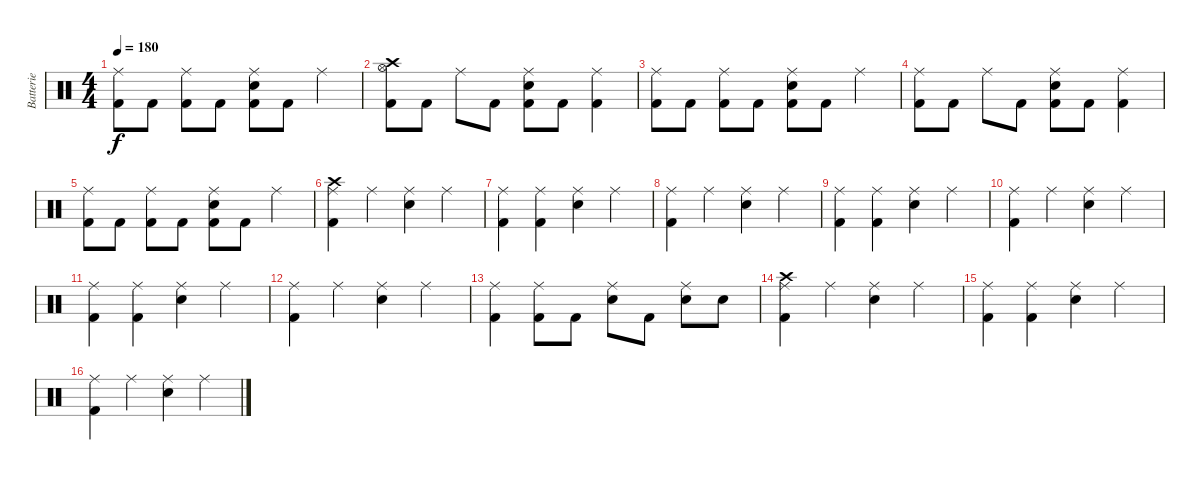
\track ("Batterie" "Batterie") {instrument percussion}
\staff {score}
\articulation defaults
\ts (4 4)
\tempo 180
\clef neutral
\ks c
("Ride (middle)" "Kick (hit) 2").8{dy f} "Kick (hit) 2".8 ("Ride (middle)" "Kick (hit) 2").8 "Kick (hit) 2".8 ("Ride (middle)" "Electric Snare (hit)" "Kick (hit) 2").8 "Kick (hit) 2".8 "Ride (middle)".4 |
("Crash high (hit)" "Hi-Hat (open)" "Kick (hit) 2").8 "Kick (hit) 2".8 "Ride (middle)".8 "Kick (hit) 2".8 ("Ride (middle)" "Electric Snare (hit)" "Kick (hit) 2").8 "Kick (hit) 2".8 ("Ride (middle)" "Kick (hit) 2").4 |
("Ride (middle)" "Kick (hit) 2").8 "Kick (hit) 2".8 ("Ride (middle)" "Kick (hit) 2").8 "Kick (hit) 2".8 ("Ride (middle)" "Electric Snare (hit)" "Kick (hit) 2").8 "Kick (hit) 2".8 "Ride (middle)".4 |
("Ride (middle)" "Kick (hit) 2").8 "Kick (hit) 2".8 "Ride (middle)".8 "Kick (hit) 2".8 ("Ride (middle)" "Electric Snare (hit)" "Kick (hit) 2").8 "Kick (hit) 2".8 ("Ride (middle)" "Kick (hit) 2").4 |
("Ride (middle)" "Kick (hit) 2").8 "Kick (hit) 2".8 ("Ride (middle)" "Kick (hit) 2").8 "Kick (hit) 2".8 ("Ride (middle)" "Electric Snare (hit)" "Kick (hit) 2").8 "Kick (hit) 2".8 "Ride (middle)".4 |
("Crash high (hit)" "Ride (middle)" "Kick (hit) 2").4 "Ride (middle)".4 ("Ride (middle)" "Electric Snare (hit)").4 "Ride (middle)".4 |
("Ride (middle)" "Kick (hit) 2").4 ("Ride (middle)" "Kick (hit) 2").4 ("Ride (middle)" "Electric Snare (hit)").4 "Ride (middle)".4 |
("Ride (middle)" "Kick (hit) 2").4 "Ride (middle)".4 ("Ride (middle)" "Electric Snare (hit)").4 "Ride (middle)".4 |
("Ride (middle)" "Kick (hit) 2").4 ("Ride (middle)" "Kick (hit) 2").4 ("Ride (middle)" "Electric Snare (hit)").4 "Ride (middle)".4 |
("Ride (middle)" "Kick (hit) 2").4 "Ride (middle)".4 ("Ride (middle)" "Electric Snare (hit)").4 "Ride (middle)".4 |
("Ride (middle)" "Kick (hit) 2").4 ("Ride (middle)" "Kick (hit) 2").4 ("Ride (middle)" "Electric Snare (hit)").4 "Ride (middle)".4 |
("Ride (middle)" "Kick (hit) 2").4 "Ride (middle)".4 ("Ride (middle)" "Electric Snare (hit)").4 "Ride (middle)".4 |
("Ride (middle)" "Kick (hit) 2").4 ("Ride (middle)" "Kick (hit) 2").8 "Kick (hit) 2".8 ("Ride (middle)" "Electric Snare (hit)").8 "Kick (hit) 2".8 ("Ride (middle)" "Electric Snare (hit)").8 "Electric Snare (hit)".8 |
("Crash high (hit)" "Ride (middle)" "Kick (hit) 2").4 "Ride (middle)".4 ("Ride (middle)" "Electric Snare (hit)").4 "Ride (middle)".4 |
("Ride (middle)" "Kick (hit) 2").4 ("Ride (middle)" "Kick (hit) 2").4 ("Ride (middle)" "Electric Snare (hit)").4 "Ride (middle)".4 |
("Ride (middle)" "Kick (hit) 2").4 "Ride (middle)".4 ("Ride (middle)" "Electric Snare (hit)").4 "Ride (middle)".4
